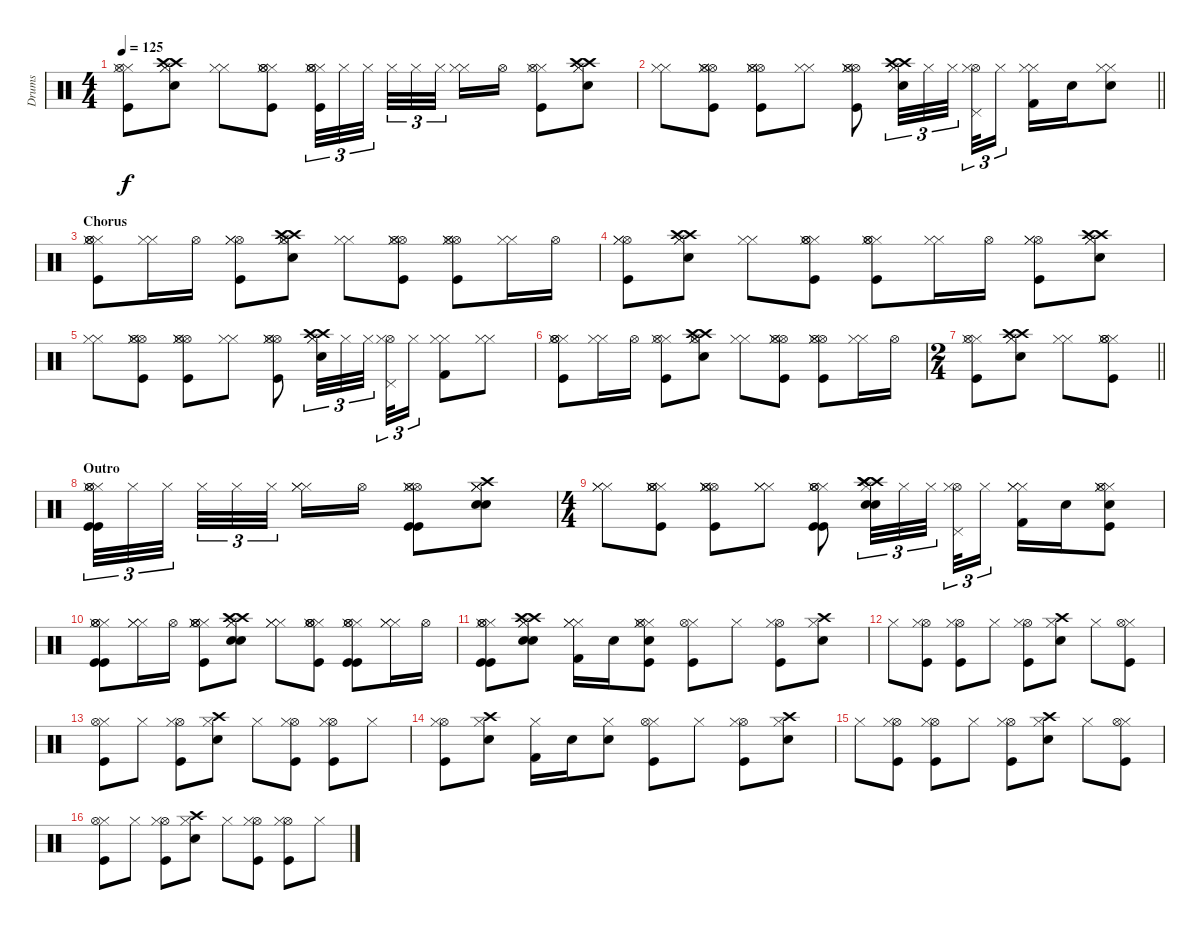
\track ("Drums" "Drums") {instrument percussion}
\staff {score}
\articulation defaults
\ts (4 4)
\tempo 125
\clef neutral
\ks c
("Hi-Hat (closed)" "Hi-Hat (open)" "Kick (hit)" "Hi-Hat (closed)").8{dy f} ("Crash high (hit)" "Hi-Hat (closed)" "Crash high (hit)" "Electric Snare (hit)" "Hi-Hat (closed)").8 ("Hi-Hat (closed)" "Hi-Hat (closed)").8 ("Hi-Hat (closed)" "Hi-Hat (open)" "Kick (hit)" "Hi-Hat (closed)" "Hi-Hat (open)").8 ("Hi-Hat (closed)" "Hi-Hat (open)" "Hi-Hat (closed)" "Hi-Hat (open)" "Kick (hit)").32{tu (3 2)} "Hi-Hat (closed)".32{tu (3 2)} "Hi-Hat (closed)".32{tu (3 2) beam splitsecondary} "Hi-Hat (closed)".32{tu (3 2)} "Hi-Hat (closed)".32{tu (3 2)} "Hi-Hat (closed)".32{tu (3 2) beam splitsecondary} ("Hi-Hat (closed)" "Hi-Hat (closed)").16 "Hi-Hat (open)".16 ("Hi-Hat (closed)" "Hi-Hat (open)" "Kick (hit)" "Hi-Hat (closed)").8 ("Crash high (hit)" "Hi-Hat (closed)" "Crash high (hit)" "Hi-Hat (closed)" "Electric Snare (hit)").8 |
\barLineRight lightlight
("Hi-Hat (closed)" "Hi-Hat (closed)").8 ("Hi-Hat (open)" "Hi-Hat (closed)" "Kick (hit)" "Hi-Hat (open)" "Hi-Hat (closed)").8 ("Hi-Hat (open)" "Hi-Hat (closed)" "Hi-Hat (open)" "Kick (hit)" "Hi-Hat (closed)").8 ("Hi-Hat (closed)" "Hi-Hat (closed)").8 ("Hi-Hat (open)" "Hi-Hat (closed)" "Kick (hit)" "Hi-Hat (open)" "Hi-Hat (closed)").8 ("Crash high (hit)" "Hi-Hat (closed)" "Electric Snare (hit)" "Crash high (hit)" "Hi-Hat (closed)").32{tu (3 2)} "Hi-Hat (closed)".32{tu (3 2)} "Hi-Hat (closed)".32{tu (3 2) beam splitsecondary} ("Hi-Hat (open)" "Hi-Hat (closed)" "Pedal Hi-Hat (hit)").32{tu (3 2)} "Hi-Hat (closed)".16{tu (3 2)} ("Hi-Hat (closed)" "Kick (hit) 2" "Hi-Hat (closed)").16 "Electric Snare (hit)".16 ("Hi-Hat (closed)" "Electric Snare (hit)" "Hi-Hat (closed)").8 |
\section ("" "Chorus")
("Hi-Hat (closed)" "Hi-Hat (open)" "Kick (hit)" "Hi-Hat (closed)" "Hi-Hat (open)").8 ("Hi-Hat (closed)" "Hi-Hat (closed)").16 "Hi-Hat (open)".16 ("Hi-Hat (open)" "Kick (hit)" "Hi-Hat (closed)" "Hi-Hat (closed)").8 ("Electric Snare (hit)" "Crash high (hit)" "Hi-Hat (closed)" "Crash high (hit)" "Hi-Hat (closed)" "Hi-Hat (open)").8 ("Hi-Hat (closed)" "Hi-Hat (closed)").8 ("Kick (hit)" "Hi-Hat (open)" "Hi-Hat (closed)" "Hi-Hat (open)" "Hi-Hat (closed)").8 ("Hi-Hat (open)" "Kick (hit)" "Hi-Hat (closed)" "Hi-Hat (open)" "Hi-Hat (closed)").8 ("Hi-Hat (closed)" "Hi-Hat (closed)").16 "Hi-Hat (open)".16 |
("Hi-Hat (open)" "Kick (hit)" "Hi-Hat (closed)" "Hi-Hat (closed)").8 ("Crash high (hit)" "Electric Snare (hit)" "Hi-Hat (closed)" "Crash high (hit)" "Hi-Hat (closed)").8 ("Hi-Hat (closed)" "Hi-Hat (closed)").8 ("Kick (hit)" "Hi-Hat (closed)" "Hi-Hat (open)" "Hi-Hat (closed)" "Hi-Hat (open)").8 ("Hi-Hat (closed)" "Hi-Hat (open)" "Kick (hit)" "Hi-Hat (closed)" "Hi-Hat (open)").8 ("Hi-Hat (closed)" "Hi-Hat (closed)").16 "Hi-Hat (open)".16 ("Hi-Hat (open)" "Kick (hit)" "Hi-Hat (closed)" "Hi-Hat (closed)").8 ("Crash high (hit)" "Hi-Hat (closed)" "Electric Snare (hit)" "Crash high (hit)" "Hi-Hat (closed)").8 |
("Hi-Hat (closed)" "Hi-Hat (closed)").8 ("Kick (hit)" "Hi-Hat (open)" "Hi-Hat (closed)" "Hi-Hat (open)" "Hi-Hat (closed)").8 ("Hi-Hat (open)" "Kick (hit)" "Hi-Hat (closed)" "Hi-Hat (open)" "Hi-Hat (closed)").8 ("Hi-Hat (closed)" "Hi-Hat (closed)").8 ("Kick (hit)" "Hi-Hat (open)" "Hi-Hat (closed)" "Hi-Hat (open)" "Hi-Hat (closed)").8 ("Electric Snare (hit)" "Crash high (hit)" "Hi-Hat (closed)" "Crash high (hit)" "Hi-Hat (closed)").32{tu (3 2)} "Hi-Hat (closed)".32{tu (3 2)} "Hi-Hat (closed)".32{tu (3 2) beam splitsecondary} ("Hi-Hat (open)" "Hi-Hat (closed)" "Pedal Hi-Hat (hit)").32{tu (3 2)} "Hi-Hat (closed)".16{tu (3 2)} ("Kick (hit) 2" "Hi-Hat (closed)" "Hi-Hat (closed)").8 ("Hi-Hat (closed)" "Hi-Hat (closed)").8 |
("Hi-Hat (closed)" "Hi-Hat (open)" "Hi-Hat (closed)" "Hi-Hat (open)" "Kick (hit)").8 ("Hi-Hat (closed)" "Hi-Hat (closed)").16 "Hi-Hat (open)".16 ("Hi-Hat (closed)" "Hi-Hat (open)" "Kick (hit)" "Hi-Hat (closed)").8 ("Crash high (hit)" "Hi-Hat (closed)" "Hi-Hat (open)" "Electric Snare (hit)" "Crash high (hit)" "Hi-Hat (closed)").8 ("Hi-Hat (closed)" "Hi-Hat (closed)").8 ("Hi-Hat (open)" "Hi-Hat (closed)" "Kick (hit)" "Hi-Hat (open)" "Hi-Hat (closed)").8 ("Hi-Hat (open)" "Hi-Hat (closed)" "Hi-Hat (open)" "Kick (hit)" "Hi-Hat (closed)").8 ("Hi-Hat (closed)" "Hi-Hat (closed)").16 "Hi-Hat (open)".16 |
\ts (2 4)
\barLineRight lightlight
("Hi-Hat (closed)" "Hi-Hat (open)" "Kick (hit)" "Hi-Hat (closed)").8 ("Crash high (hit)" "Hi-Hat (closed)" "Crash high (hit)" "Electric Snare (hit)" "Hi-Hat (closed)").8 ("Hi-Hat (closed)" "Hi-Hat (closed)").8 ("Hi-Hat (closed)" "Hi-Hat (open)" "Kick (hit)" "Hi-Hat (closed)" "Hi-Hat (open)").8 |
\section ("" "Outro")
("Hi-Hat (closed)" "Hi-Hat (open)" "Hi-Hat (closed)" "Hi-Hat (open)" "Kick (hit)" "Kick (hit)").32{tu (3 2)} "Hi-Hat (closed)".32{tu (3 2)} "Hi-Hat (closed)".32{tu (3 2) beam splitsecondary} "Hi-Hat (closed)".32{tu (3 2)} "Hi-Hat (closed)".32{tu (3 2)} "Hi-Hat (closed)".32{tu (3 2) beam splitsecondary} ("Hi-Hat (closed)" "Hi-Hat (closed)" "Hi-Hat (closed)").16 "Hi-Hat (open)".16 ("Hi-Hat (open)" "Kick (hit)" "Hi-Hat (closed)" "Hi-Hat (closed)" "Hi-Hat (open)" "Kick (hit)").8 ("Electric Snare (hit)" "Crash high (hit)" "Hi-Hat (closed)" "Hi-Hat (closed)" "Electric Snare (hit)" "Hi-Hat (closed)").8 |
\ts (4 4)
("Hi-Hat (closed)" "Hi-Hat (closed)" "Hi-Hat (closed)").8 ("Hi-Hat (closed)" "Hi-Hat (open)" "Hi-Hat (closed)" "Hi-Hat (open)" "Hi-Hat (closed)" "Kick (hit)").8 ("Hi-Hat (open)" "Hi-Hat (closed)" "Hi-Hat (open)" "Kick (hit)" "Hi-Hat (closed)" "Hi-Hat (closed)").8 ("Hi-Hat (closed)" "Hi-Hat (closed)" "Hi-Hat (closed)").8 ("Kick (hit)" "Hi-Hat (closed)" "Hi-Hat (open)" "Hi-Hat (open)" "Hi-Hat (closed)" "Kick (hit)").8 ("Crash high (hit)" "Hi-Hat (closed)" "Electric Snare (hit)" "Crash high (hit)" "Crash high (hit)" "Electric Snare (hit)").32{tu (3 2)} "Hi-Hat (closed)".32{tu (3 2)} "Hi-Hat (closed)".32{tu (3 2) beam splitsecondary} ("Hi-Hat (open)" "Hi-Hat (closed)" "Pedal Hi-Hat (hit)").32{tu (3 2)} "Hi-Hat (closed)".16{tu (3 2)} ("Hi-Hat (closed)" "Hi-Hat (closed)" "Kick (hit) 2" "Hi-Hat (closed)").16 "Electric Snare (hit)".16 ("Electric Snare (hit)" "Hi-Hat (closed)" "Hi-Hat (closed)" "Kick (hit)" "Hi-Hat (closed)" "Hi-Hat (open)").8 |
("Hi-Hat (closed)" "Hi-Hat (open)" "Kick (hit)" "Kick (hit)" "Hi-Hat (closed)" "Hi-Hat (open)").8 ("Hi-Hat (closed)" "Hi-Hat (closed)" "Hi-Hat (closed)").16 "Hi-Hat (open)".16 ("Hi-Hat (closed)" "Hi-Hat (closed)" "Kick (hit)" "Hi-Hat (closed)" "Hi-Hat (open)" "Hi-Hat (open)").8 ("Crash high (hit)" "Electric Snare (hit)" "Crash high (hit)" "Hi-Hat (closed)" "Electric Snare (hit)" "Hi-Hat (closed)").8 ("Hi-Hat (closed)" "Hi-Hat (closed)" "Hi-Hat (closed)").8 ("Kick (hit)" "Hi-Hat (closed)" "Hi-Hat (open)" "Hi-Hat (closed)" "Hi-Hat (open)" "Hi-Hat (open)").8 ("Hi-Hat (closed)" "Hi-Hat (open)" "Kick (hit)" "Hi-Hat (open)" "Kick (hit)" "Hi-Hat (closed)").8 ("Hi-Hat (closed)" "Hi-Hat (closed)" "Hi-Hat (closed)").16 "Hi-Hat (open)".16 |
("Hi-Hat (closed)" "Kick (hit)" "Kick (hit)" "Hi-Hat (open)" "Hi-Hat (open)" "Hi-Hat (closed)").8 ("Hi-Hat (closed)" "Crash high (hit)" "Electric Snare (hit)" "Hi-Hat (closed)" "Crash high (hit)" "Electric Snare (hit)").8 ("Kick (hit) 2" "Hi-Hat (closed)" "Hi-Hat (closed)" "Hi-Hat (closed)").16 "Electric Snare (hit)".16 ("Hi-Hat (closed)" "Electric Snare (hit)" "Kick (hit)" "Hi-Hat (closed)" "Hi-Hat (open)" "Hi-Hat (closed)").8 ("Hi-Hat (closed)" "Hi-Hat (open)" "Kick (hit)").8 "Hi-Hat (closed)".8 ("Hi-Hat (open)" "Kick (hit)" "Hi-Hat (closed)").8 ("Electric Snare (hit)" "Crash high (hit)" "Hi-Hat (closed)").8 |
"Hi-Hat (closed)".8 ("Kick (hit)" "Hi-Hat (open)" "Hi-Hat (closed)").8 ("Hi-Hat (open)" "Kick (hit)" "Hi-Hat (closed)").8 "Hi-Hat (closed)".8 ("Hi-Hat (open)" "Kick (hit)" "Hi-Hat (closed)").8 ("Crash high (hit)" "Electric Snare (hit)" "Hi-Hat (closed)").8 "Hi-Hat (closed)".8 ("Kick (hit)" "Hi-Hat (closed)" "Hi-Hat (open)").8 |
("Hi-Hat (closed)" "Hi-Hat (open)" "Kick (hit)").8 "Hi-Hat (closed)".8 ("Hi-Hat (open)" "Kick (hit)" "Hi-Hat (closed)").8 ("Crash high (hit)" "Hi-Hat (closed)" "Electric Snare (hit)").8 "Hi-Hat (closed)".8 ("Kick (hit)" "Hi-Hat (open)" "Hi-Hat (closed)").8 ("Hi-Hat (open)" "Kick (hit)" "Hi-Hat (closed)").8 "Hi-Hat (closed)".8 |
("Kick (hit)" "Hi-Hat (open)" "Hi-Hat (closed)").8 ("Electric Snare (hit)" "Crash high (hit)" "Hi-Hat (closed)").8 ("Kick (hit) 2" "Hi-Hat (closed)").16 "Electric Snare (hit)".16 ("Electric Snare (hit)" "Hi-Hat (closed)").8 ("Hi-Hat (closed)" "Hi-Hat (open)" "Kick (hit)").8 "Hi-Hat (closed)".8 ("Hi-Hat (open)" "Kick (hit)" "Hi-Hat (closed)").8 ("Electric Snare (hit)" "Crash high (hit)" "Hi-Hat (closed)").8 |
"Hi-Hat (closed)".8 ("Kick (hit)" "Hi-Hat (open)" "Hi-Hat (closed)").8 ("Hi-Hat (open)" "Kick (hit)" "Hi-Hat (closed)").8 "Hi-Hat (closed)".8 ("Hi-Hat (open)" "Kick (hit)" "Hi-Hat (closed)").8 ("Crash high (hit)" "Electric Snare (hit)" "Hi-Hat (closed)").8 "Hi-Hat (closed)".8 ("Kick (hit)" "Hi-Hat (closed)" "Hi-Hat (open)").8 |
("Hi-Hat (closed)" "Hi-Hat (open)" "Kick (hit)").8 "Hi-Hat (closed)".8 ("Hi-Hat (open)" "Kick (hit)" "Hi-Hat (closed)").8 ("Crash high (hit)" "Hi-Hat (closed)" "Electric Snare (hit)").8 "Hi-Hat (closed)".8 ("Kick (hit)" "Hi-Hat (open)" "Hi-Hat (closed)").8 ("Hi-Hat (open)" "Kick (hit)" "Hi-Hat (closed)").8 "Hi-Hat (closed)".8
